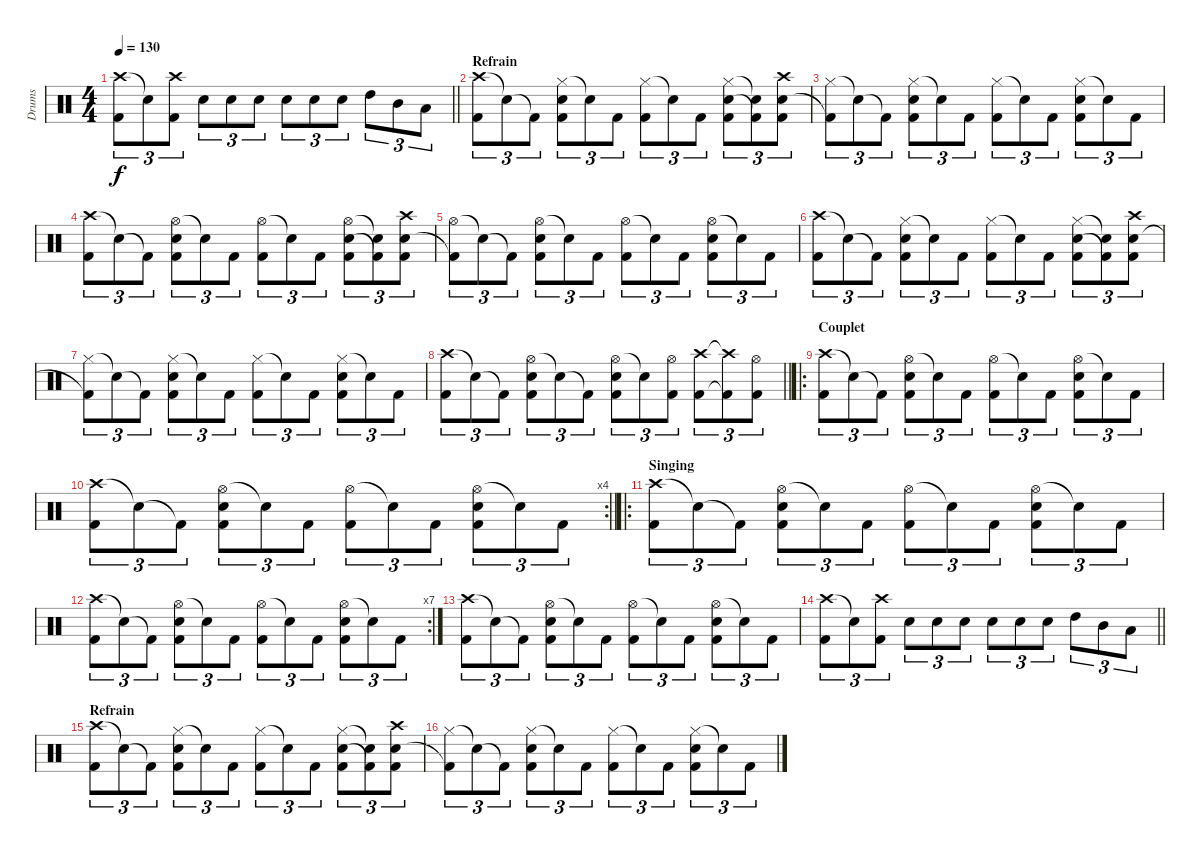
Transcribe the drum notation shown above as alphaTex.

\track ("Drums" "Drums") {instrument percussion}
\staff {score}
\articulation defaults
\ts (4 4)
\tempo 130
\clef neutral
\barLineRight lightlight
\ks c
("Crash high (hit)" "Kick (hit) 2").8{tu (3 2) dy f} "Snare (hit)"{t}.8{tu (3 2)} ("Crash high (hit)" "Kick (hit) 2").8{tu (3 2)} "Electric Snare (hit)".8{tu (3 2)} "Electric Snare (hit)".8{tu (3 2)} "Electric Snare (hit)".8{tu (3 2)} "Electric Snare (hit)".8{tu (3 2)} "Electric Snare (hit)".8{tu (3 2)} "Electric Snare (hit)".8{tu (3 2)} "High Tom (hit)".8{tu (3 2)} "Mid Tom (hit)".8{tu (3 2)} "Low Tom (hit)".8{tu (3 2)} |
\section ("" "Refrain")
("Crash high (hit)" "Kick (hit) 2").8{tu (3 2)} "Snare (hit)"{t}.8{tu (3 2)} "Kick (hit) 2"{t}.8{tu (3 2)} ("Hi-Hat (closed)" "Electric Snare (hit)" "Kick (hit) 2").8{tu (3 2)} "Snare (hit)"{t}.8{tu (3 2)} "Kick (hit) 2".8{tu (3 2)} ("Hi-Hat (closed)" "Kick (hit) 2").8{tu (3 2)} "Snare (hit)"{t}.8{tu (3 2)} "Kick (hit) 2".8{tu (3 2)} ("Hi-Hat (closed)" "Electric Snare (hit)" "Kick (hit) 2").8{tu (3 2)} ("Electric Snare (hit)"{t} "Kick (hit) 2"{t}).8{tu (3 2)} ("Crash high (hit)" "Electric Snare (hit)" "Kick (hit) 2").8{tu (3 2)} |
("Hi-Hat (closed)" "Kick (hit) 2"{t}).8{tu (3 2)} "Snare (hit)"{t}.8{tu (3 2)} "Kick (hit) 2"{t}.8{tu (3 2)} ("Hi-Hat (closed)" "Electric Snare (hit)" "Kick (hit) 2").8{tu (3 2)} "Snare (hit)"{t}.8{tu (3 2)} "Kick (hit) 2".8{tu (3 2)} ("Hi-Hat (closed)" "Kick (hit) 2").8{tu (3 2)} "Snare (hit)"{t}.8{tu (3 2)} "Kick (hit) 2".8{tu (3 2)} ("Hi-Hat (closed)" "Electric Snare (hit)" "Kick (hit) 2").8{tu (3 2)} "Snare (hit)"{t}.8{tu (3 2)} "Kick (hit) 2".8{tu (3 2)} |
("Crash high (hit)" "Kick (hit) 2").8{tu (3 2)} "Snare (hit)"{t}.8{tu (3 2)} "Kick (hit) 2"{t}.8{tu (3 2)} ("Hi-Hat (open)" "Electric Snare (hit)" "Kick (hit) 2").8{tu (3 2)} "Snare (hit)"{t}.8{tu (3 2)} "Kick (hit) 2".8{tu (3 2)} ("Hi-Hat (open)" "Kick (hit) 2").8{tu (3 2)} "Snare (hit)"{t}.8{tu (3 2)} "Kick (hit) 2".8{tu (3 2)} ("Hi-Hat (open)" "Electric Snare (hit)" "Kick (hit) 2").8{tu (3 2)} ("Electric Snare (hit)"{t} "Kick (hit) 2"{t}).8{tu (3 2)} ("Crash high (hit)" "Electric Snare (hit)" "Kick (hit) 2").8{tu (3 2)} |
("Hi-Hat (open)" "Kick (hit) 2"{t}).8{tu (3 2)} "Snare (hit)"{t}.8{tu (3 2)} "Kick (hit) 2"{t}.8{tu (3 2)} ("Hi-Hat (open)" "Electric Snare (hit)" "Kick (hit) 2").8{tu (3 2)} "Snare (hit)"{t}.8{tu (3 2)} "Kick (hit) 2".8{tu (3 2)} ("Hi-Hat (open)" "Kick (hit) 2").8{tu (3 2)} "Snare (hit)"{t}.8{tu (3 2)} "Kick (hit) 2".8{tu (3 2)} ("Hi-Hat (open)" "Electric Snare (hit)" "Kick (hit) 2").8{tu (3 2)} "Snare (hit)"{t}.8{tu (3 2)} "Kick (hit) 2".8{tu (3 2)} |
("Crash high (hit)" "Kick (hit) 2").8{tu (3 2)} "Snare (hit)"{t}.8{tu (3 2)} "Kick (hit) 2"{t}.8{tu (3 2)} ("Hi-Hat (closed)" "Electric Snare (hit)" "Kick (hit) 2").8{tu (3 2)} "Snare (hit)"{t}.8{tu (3 2)} "Kick (hit) 2".8{tu (3 2)} ("Hi-Hat (closed)" "Kick (hit) 2").8{tu (3 2)} "Snare (hit)"{t}.8{tu (3 2)} "Kick (hit) 2".8{tu (3 2)} ("Hi-Hat (closed)" "Electric Snare (hit)" "Kick (hit) 2").8{tu (3 2)} ("Electric Snare (hit)"{t} "Kick (hit) 2"{t}).8{tu (3 2)} ("Crash high (hit)" "Electric Snare (hit)" "Kick (hit) 2").8{tu (3 2)} |
("Hi-Hat (closed)" "Kick (hit) 2"{t}).8{tu (3 2)} "Snare (hit)"{t}.8{tu (3 2)} "Kick (hit) 2"{t}.8{tu (3 2)} ("Hi-Hat (closed)" "Electric Snare (hit)" "Kick (hit) 2").8{tu (3 2)} "Snare (hit)"{t}.8{tu (3 2)} "Kick (hit) 2".8{tu (3 2)} ("Hi-Hat (closed)" "Kick (hit) 2").8{tu (3 2)} "Snare (hit)"{t}.8{tu (3 2)} "Kick (hit) 2".8{tu (3 2)} ("Hi-Hat (closed)" "Electric Snare (hit)" "Kick (hit) 2").8{tu (3 2)} "Snare (hit)"{t}.8{tu (3 2)} "Kick (hit) 2".8{tu (3 2)} |
\barLineRight lightlight
("Crash high (hit)" "Kick (hit) 2").8{tu (3 2)} "Snare (hit)"{t}.8{tu (3 2)} "Kick (hit) 2"{t}.8{tu (3 2)} ("Hi-Hat (open)" "Electric Snare (hit)" "Kick (hit) 2").8{tu (3 2)} "Snare (hit)"{t}.8{tu (3 2)} "Kick (hit) 2"{t}.8{tu (3 2)} ("Hi-Hat (open)" "Electric Snare (hit)" "Kick (hit) 2").8{tu (3 2)} "Snare (hit)"{t}.8{tu (3 2)} ("Hi-Hat (open)" "Kick (hit) 2").8{tu (3 2)} ("Crash high (hit)" "Kick (hit) 2").8{tu (3 2)} ("Crash high (hit)"{t} "Kick (hit) 2"{t}).8{tu (3 2)} ("Hi-Hat (open)" "Kick (hit) 2").8{tu (3 2)} |
\ro
\section ("" "Couplet")
("Crash high (hit)" "Kick (hit) 2").8{tu (3 2)} "Snare (hit)"{t}.8{tu (3 2)} "Kick (hit) 2"{t}.8{tu (3 2)} ("Hi-Hat (open)" "Electric Snare (hit)" "Kick (hit) 2").8{tu (3 2)} "Snare (hit)"{t}.8{tu (3 2)} "Kick (hit) 2".8{tu (3 2)} ("Hi-Hat (open)" "Kick (hit) 2").8{tu (3 2)} "Snare (hit)"{t}.8{tu (3 2)} "Kick (hit) 2".8{tu (3 2)} ("Hi-Hat (open)" "Electric Snare (hit)" "Kick (hit) 2").8{tu (3 2)} "Snare (hit)"{t}.8{tu (3 2)} "Kick (hit) 2".8{tu (3 2)} |
\rc 4
\barLineRight lightlight
("Crash high (hit)" "Kick (hit) 2").8{tu (3 2)} "Snare (hit)"{t}.8{tu (3 2)} "Kick (hit) 2"{t}.8{tu (3 2)} ("Hi-Hat (open)" "Electric Snare (hit)" "Kick (hit) 2").8{tu (3 2)} "Snare (hit)"{t}.8{tu (3 2)} "Kick (hit) 2".8{tu (3 2)} ("Hi-Hat (open)" "Kick (hit) 2").8{tu (3 2)} "Snare (hit)"{t}.8{tu (3 2)} "Kick (hit) 2".8{tu (3 2)} ("Hi-Hat (open)" "Electric Snare (hit)" "Kick (hit) 2").8{tu (3 2)} "Snare (hit)"{t}.8{tu (3 2)} "Kick (hit) 2".8{tu (3 2)} |
\ro
\section ("" "Singing")
("Crash high (hit)" "Kick (hit) 2").8{tu (3 2)} "Snare (hit)"{t}.8{tu (3 2)} "Kick (hit) 2"{t}.8{tu (3 2)} ("Hi-Hat (open)" "Electric Snare (hit)" "Kick (hit) 2").8{tu (3 2)} "Snare (hit)"{t}.8{tu (3 2)} "Kick (hit) 2".8{tu (3 2)} ("Hi-Hat (open)" "Kick (hit) 2").8{tu (3 2)} "Snare (hit)"{t}.8{tu (3 2)} "Kick (hit) 2".8{tu (3 2)} ("Hi-Hat (open)" "Electric Snare (hit)" "Kick (hit) 2").8{tu (3 2)} "Snare (hit)"{t}.8{tu (3 2)} "Kick (hit) 2".8{tu (3 2)} |
\rc 7
("Crash high (hit)" "Kick (hit) 2").8{tu (3 2)} "Snare (hit)"{t}.8{tu (3 2)} "Kick (hit) 2"{t}.8{tu (3 2)} ("Hi-Hat (open)" "Electric Snare (hit)" "Kick (hit) 2").8{tu (3 2)} "Snare (hit)"{t}.8{tu (3 2)} "Kick (hit) 2".8{tu (3 2)} ("Hi-Hat (open)" "Kick (hit) 2").8{tu (3 2)} "Snare (hit)"{t}.8{tu (3 2)} "Kick (hit) 2".8{tu (3 2)} ("Hi-Hat (open)" "Electric Snare (hit)" "Kick (hit) 2").8{tu (3 2)} "Snare (hit)"{t}.8{tu (3 2)} "Kick (hit) 2".8{tu (3 2)} |
("Crash high (hit)" "Kick (hit) 2").8{tu (3 2)} "Snare (hit)"{t}.8{tu (3 2)} "Kick (hit) 2"{t}.8{tu (3 2)} ("Hi-Hat (open)" "Electric Snare (hit)" "Kick (hit) 2").8{tu (3 2)} "Snare (hit)"{t}.8{tu (3 2)} "Kick (hit) 2".8{tu (3 2)} ("Hi-Hat (open)" "Kick (hit) 2").8{tu (3 2)} "Snare (hit)"{t}.8{tu (3 2)} "Kick (hit) 2".8{tu (3 2)} ("Hi-Hat (open)" "Electric Snare (hit)" "Kick (hit) 2").8{tu (3 2)} "Snare (hit)"{t}.8{tu (3 2)} "Kick (hit) 2".8{tu (3 2)} |
\barLineRight lightlight
("Crash high (hit)" "Kick (hit) 2").8{tu (3 2)} "Snare (hit)"{t}.8{tu (3 2)} ("Crash high (hit)" "Kick (hit) 2").8{tu (3 2)} "Electric Snare (hit)".8{tu (3 2)} "Electric Snare (hit)".8{tu (3 2)} "Electric Snare (hit)".8{tu (3 2)} "Electric Snare (hit)".8{tu (3 2)} "Electric Snare (hit)".8{tu (3 2)} "Electric Snare (hit)".8{tu (3 2)} "High Tom (hit)".8{tu (3 2)} "Mid Tom (hit)".8{tu (3 2)} "Low Tom (hit)".8{tu (3 2)} |
\section ("" "Refrain")
("Crash high (hit)" "Kick (hit) 2").8{tu (3 2)} "Snare (hit)"{t}.8{tu (3 2)} "Kick (hit) 2"{t}.8{tu (3 2)} ("Hi-Hat (closed)" "Electric Snare (hit)" "Kick (hit) 2").8{tu (3 2)} "Snare (hit)"{t}.8{tu (3 2)} "Kick (hit) 2".8{tu (3 2)} ("Hi-Hat (closed)" "Kick (hit) 2").8{tu (3 2)} "Snare (hit)"{t}.8{tu (3 2)} "Kick (hit) 2".8{tu (3 2)} ("Hi-Hat (closed)" "Electric Snare (hit)" "Kick (hit) 2").8{tu (3 2)} ("Electric Snare (hit)"{t} "Kick (hit) 2"{t}).8{tu (3 2)} ("Crash high (hit)" "Electric Snare (hit)" "Kick (hit) 2").8{tu (3 2)} |
("Hi-Hat (closed)" "Kick (hit) 2"{t}).8{tu (3 2)} "Snare (hit)"{t}.8{tu (3 2)} "Kick (hit) 2"{t}.8{tu (3 2)} ("Hi-Hat (closed)" "Electric Snare (hit)" "Kick (hit) 2").8{tu (3 2)} "Snare (hit)"{t}.8{tu (3 2)} "Kick (hit) 2".8{tu (3 2)} ("Hi-Hat (closed)" "Kick (hit) 2").8{tu (3 2)} "Snare (hit)"{t}.8{tu (3 2)} "Kick (hit) 2".8{tu (3 2)} ("Hi-Hat (closed)" "Electric Snare (hit)" "Kick (hit) 2").8{tu (3 2)} "Snare (hit)"{t}.8{tu (3 2)} "Kick (hit) 2".8{tu (3 2)}
